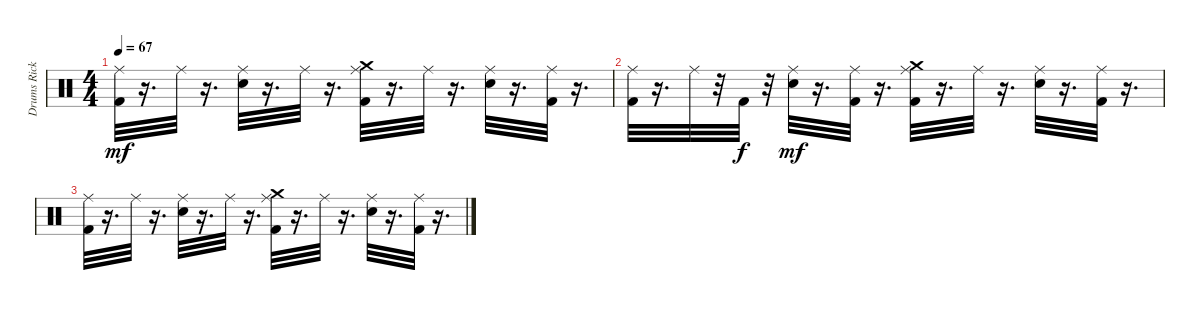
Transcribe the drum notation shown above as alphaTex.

\track ("Drums Rick Allen" "Drums Rick") {solo instrument percussion}
\staff {score}
\articulation defaults
\ts (4 4)
\tempo 67
\clef neutral
\ks c
("Kick (hit) 2" "Ride (middle)").32{dy mf} r.16{d} "Ride (middle)".32 r.16{d} ("Electric Snare (hit)" "Ride (middle)").32 r.16{d} "Ride (middle)".32 r.16{d} ("Kick (hit) 2" "Ride (middle)" "Crash medium (hit)").32 r.16{d} "Ride (middle)".32 r.16{d} ("Electric Snare (hit)" "Ride (middle)").32 r.16{d} ("Kick (hit) 2" "Ride (middle)").32 r.16{d} |
("Kick (hit) 2" "Ride (middle)").32 r.16{d} "Ride (middle)".32 r.32 "Kick (hit) 2".32{dy f} r.32 ("Electric Snare (hit)" "Ride (middle)").32{dy mf} r.16{d} ("Kick (hit) 2" "Ride (middle)").32 r.16{d} ("Kick (hit) 2" "Ride (middle)" "Crash medium (hit)").32 r.16{d} "Ride (middle)".32 r.16{d} ("Electric Snare (hit)" "Ride (middle)").32 r.16{d} ("Kick (hit) 2" "Ride (middle)").32 r.16{d} |
("Kick (hit) 2" "Ride (middle)").32 r.16{d} "Ride (middle)".32 r.16{d} ("Electric Snare (hit)" "Ride (middle)").32 r.16{d} "Ride (middle)".32 r.16{d} ("Kick (hit) 2" "Ride (middle)" "Crash medium (hit)").32 r.16{d} "Ride (middle)".32 r.16{d} ("Electric Snare (hit)" "Ride (middle)").32 r.16{d} ("Kick (hit) 2" "Ride (middle)").32 r.16{d}
